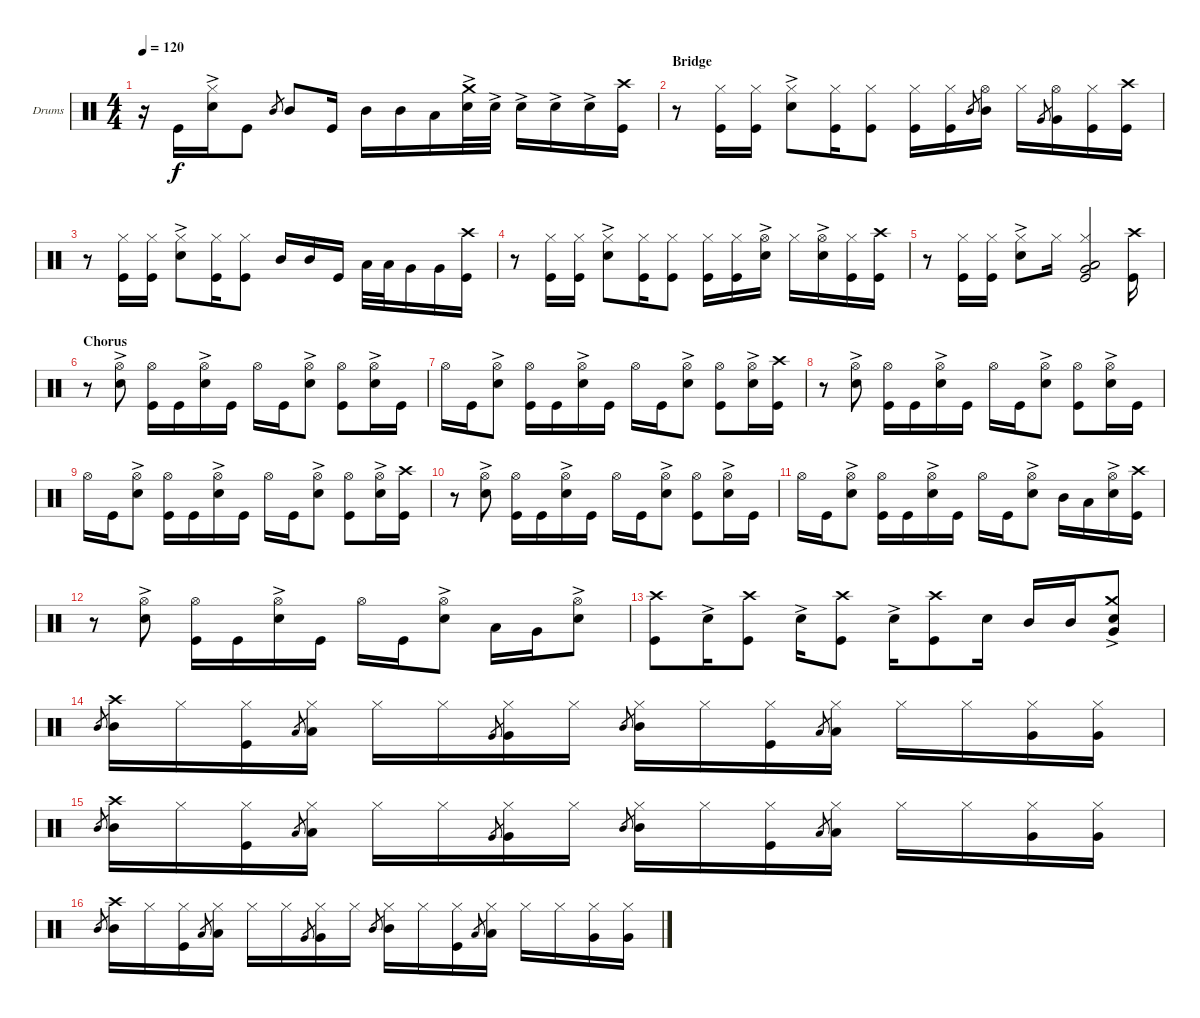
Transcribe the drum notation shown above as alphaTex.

\defaultSystemsLayout 4
\bracketExtendMode groupsimilarinstruments
\firstSystemTrackNameOrientation horizontal
\otherSystemsTrackNameOrientation horizontal
\track ("Drumkit" "Drums") {instrument percussion}
\staff {score}
\articulation defaults
\ts (4 4)
\tempo 120
\clef neutral
\ks c
r.16{dy f} "Kick (hit)".16 ("Snare (hit) 2"{ac} "Hi-Hat (closed)").16 "Kick (hit)".8 "Mid Tom (hit)".8{gr} "Mid Tom (hit)".8 "Kick (hit)".16 "Mid Tom (hit)".16 "Mid Tom (hit)".16 "Low Tom (hit)".16 ("Snare (hit) 2"{ac} "Crash medium (hit)"{ac}).32 "Snare (hit) 2"{ac}.32 "Snare (hit) 2"{ac}.16 "Snare (hit) 2"{ac}.16 "Snare (hit) 2"{ac}.16 ("Kick (hit)" "Crash high (hit)").16 |
\section ("" "Bridge")
r.8 ("Kick (hit)" "Hi-Hat (closed)").16 ("Kick (hit)" "Hi-Hat (closed)").16 ("Snare (hit) 2"{ac} "Hi-Hat (closed)").8 ("Kick (hit)" "Hi-Hat (closed)").16 ("Kick (hit)" "Hi-Hat (closed)").8 ("Kick (hit)" "Hi-Hat (closed)").16 ("Kick (hit)" "Hi-Hat (closed)").16 "Mid Tom (hit)".8{gr} ("Mid Tom (hit)" "Hi-Hat (open)").16 "Hi-Hat (closed)".16 "Very Low Tom (hit)".8{gr} ("Very Low Tom (hit)" "Hi-Hat (open)").16 ("Kick (hit)" "Hi-Hat (closed)").16 ("Kick (hit)" "Crash high (hit)").16 |
r.8 ("Kick (hit)" "Hi-Hat (closed)").16 ("Kick (hit)" "Hi-Hat (closed)").16 ("Snare (hit) 2"{ac} "Hi-Hat (closed)").8 ("Kick (hit)" "Hi-Hat (closed)").16 ("Kick (hit)" "Hi-Hat (closed)").8 "Mid Tom (hit)".16 "Mid Tom (hit)".16 "Kick (hit)".16 "Low Tom (hit)".32 "Low Tom (hit)".32 "Very Low Tom (hit)".16 "Very Low Tom (hit)".16 ("Kick (hit)" "Crash high (hit)").16 |
r.8 ("Kick (hit)" "Hi-Hat (closed)").16 ("Kick (hit)" "Hi-Hat (closed)").16 ("Snare (hit) 2"{ac} "Hi-Hat (closed)").8 ("Kick (hit)" "Hi-Hat (closed)").16 ("Kick (hit)" "Hi-Hat (closed)").8 ("Kick (hit)" "Hi-Hat (closed)").16 ("Kick (hit)" "Hi-Hat (closed)").16 ("Snare (hit) 2"{ac} "Hi-Hat (open)").16 "Hi-Hat (closed)".16 ("Snare (hit) 2"{ac} "Hi-Hat (open)").16 ("Kick (hit)" "Hi-Hat (closed)").16 ("Kick (hit)" "Crash high (hit)").16 |
r.8 ("Kick (hit)" "Hi-Hat (closed)").16 ("Kick (hit)" "Hi-Hat (closed)").16 ("Snare (hit) 2"{ac} "Hi-Hat (closed)").8 "Hi-Hat (closed)".16 ("Very Low Tom (hit)" "Low Tom (hit)" "Kick (hit)" "Hi-Hat (closed)").2 ("Kick (hit)" "Crash high (hit)").16 |
\section ("" "Chorus")
r.8 ("Snare (hit) 2"{ac} "Hi-Hat (open)").8 ("Kick (hit)" "Hi-Hat (open)").16 "Kick (hit)".16 ("Snare (hit) 2"{ac} "Hi-Hat (open)").16 "Kick (hit)".16 "Hi-Hat (open)".16 "Kick (hit)".16 ("Snare (hit) 2"{ac} "Hi-Hat (open)").8 ("Kick (hit)" "Hi-Hat (open)").8 ("Snare (hit) 2"{ac} "Hi-Hat (open)").16 "Kick (hit)".16 |
"Hi-Hat (open)".16 "Kick (hit)".16 ("Snare (hit) 2"{ac} "Hi-Hat (open)").8 ("Kick (hit)" "Hi-Hat (open)").16 "Kick (hit)".16 ("Snare (hit) 2"{ac} "Hi-Hat (open)").16 "Kick (hit)".16 "Hi-Hat (open)".16 "Kick (hit)".16 ("Snare (hit) 2"{ac} "Hi-Hat (open)").8 ("Kick (hit)" "Hi-Hat (open)").8 ("Snare (hit) 2"{ac} "Hi-Hat (open)").16 ("Kick (hit)" "Crash high (hit)").16 |
r.8 ("Snare (hit) 2"{ac} "Hi-Hat (open)").8 ("Kick (hit)" "Hi-Hat (open)").16 "Kick (hit)".16 ("Snare (hit) 2"{ac} "Hi-Hat (open)").16 "Kick (hit)".16 "Hi-Hat (open)".16 "Kick (hit)".16 ("Snare (hit) 2"{ac} "Hi-Hat (open)").8 ("Kick (hit)" "Hi-Hat (open)").8 ("Snare (hit) 2"{ac} "Hi-Hat (open)").16 "Kick (hit)".16 |
"Hi-Hat (open)".16 "Kick (hit)".16 ("Snare (hit) 2"{ac} "Hi-Hat (open)").8 ("Kick (hit)" "Hi-Hat (open)").16 "Kick (hit)".16 ("Snare (hit) 2"{ac} "Hi-Hat (open)").16 "Kick (hit)".16 "Hi-Hat (open)".16 "Kick (hit)".16 ("Snare (hit) 2"{ac} "Hi-Hat (open)").8 ("Kick (hit)" "Hi-Hat (open)").8 ("Snare (hit) 2"{ac} "Hi-Hat (open)").16 ("Kick (hit)" "Crash high (hit)").16 |
r.8 ("Snare (hit) 2"{ac} "Hi-Hat (open)").8 ("Kick (hit)" "Hi-Hat (open)").16 "Kick (hit)".16 ("Snare (hit) 2"{ac} "Hi-Hat (open)").16 "Kick (hit)".16 "Hi-Hat (open)".16 "Kick (hit)".16 ("Snare (hit) 2"{ac} "Hi-Hat (open)").8 ("Kick (hit)" "Hi-Hat (open)").8 ("Snare (hit) 2"{ac} "Hi-Hat (open)").16 "Kick (hit)".16 |
"Hi-Hat (open)".16 "Kick (hit)".16 ("Snare (hit) 2"{ac} "Hi-Hat (open)").8 ("Kick (hit)" "Hi-Hat (open)").16 "Kick (hit)".16 ("Snare (hit) 2"{ac} "Hi-Hat (open)").16 "Kick (hit)".16 "Hi-Hat (open)".16 "Kick (hit)".16 ("Snare (hit) 2"{ac} "Hi-Hat (open)").8 "Mid Tom (hit)".16 "Low Tom (hit)".16 ("Snare (hit) 2"{ac} "Hi-Hat (open)").16 ("Kick (hit)" "Crash high (hit)").16 |
r.8 ("Snare (hit) 2"{ac} "Hi-Hat (open)").8 ("Kick (hit)" "Hi-Hat (open)").16 "Kick (hit)".16 ("Snare (hit) 2"{ac} "Hi-Hat (open)").16 "Kick (hit)".16 "Hi-Hat (open)".16 "Kick (hit)".16 ("Snare (hit) 2"{ac} "Hi-Hat (open)").8 "Low Tom (hit)".16 "Very Low Tom (hit)".16 ("Snare (hit) 2"{ac} "Hi-Hat (open)").8 |
("Kick (hit)" "Crash high (hit)").8 "Snare (hit) 2"{ac}.16 ("Kick (hit)" "Crash high (hit)").8 "Snare (hit) 2"{ac}.16 ("Kick (hit)" "Crash high (hit)").8 "Snare (hit) 2"{ac}.16 ("Kick (hit)" "Crash high (hit)").8 "Snare (hit) 2".16 "Mid Tom (hit)".16 "Mid Tom (hit)".16 ("Snare (hit) 2"{ac} "Very Low Tom (hit)" "Crash medium (hit)"{ac}).8 |
"Mid Tom (hit)".8{gr} ("Mid Tom (hit)" "Crash high (hit)").16 "Hi-Hat (closed)".16 ("Hi-Hat (closed)" "Kick (hit)").16 "Low Tom (hit)".8{gr} ("Hi-Hat (closed)" "Low Tom (hit)").16 "Hi-Hat (closed)".16 "Hi-Hat (closed)".16 "Very Low Tom (hit)".8{gr} ("Hi-Hat (closed)" "Very Low Tom (hit)").16 "Hi-Hat (closed)".16 "Mid Tom (hit)".8{gr} ("Hi-Hat (closed)" "Mid Tom (hit)").16 "Hi-Hat (closed)".16 ("Hi-Hat (closed)" "Kick (hit)").16 "Low Tom (hit)".8{gr} ("Hi-Hat (closed)" "Low Tom (hit)").16 "Hi-Hat (closed)".16 "Hi-Hat (closed)".16 ("Hi-Hat (closed)" "Very Low Tom (hit)").16 ("Hi-Hat (closed)" "Very Low Tom (hit)").16 |
"Mid Tom (hit)".8{gr} ("Mid Tom (hit)" "Crash high (hit)").16 "Hi-Hat (closed)".16 ("Hi-Hat (closed)" "Kick (hit)").16 "Low Tom (hit)".8{gr} ("Hi-Hat (closed)" "Low Tom (hit)").16 "Hi-Hat (closed)".16 "Hi-Hat (closed)".16 "Very Low Tom (hit)".8{gr} ("Hi-Hat (closed)" "Very Low Tom (hit)").16 "Hi-Hat (closed)".16 "Mid Tom (hit)".8{gr} ("Hi-Hat (closed)" "Mid Tom (hit)").16 "Hi-Hat (closed)".16 ("Hi-Hat (closed)" "Kick (hit)").16 "Low Tom (hit)".8{gr} ("Hi-Hat (closed)" "Low Tom (hit)").16 "Hi-Hat (closed)".16 "Hi-Hat (closed)".16 ("Hi-Hat (closed)" "Very Low Tom (hit)").16 ("Hi-Hat (closed)" "Very Low Tom (hit)").16 |
"Mid Tom (hit)".8{gr} ("Mid Tom (hit)" "Crash high (hit)").16 "Hi-Hat (closed)".16 ("Hi-Hat (closed)" "Kick (hit)").16 "Low Tom (hit)".8{gr} ("Hi-Hat (closed)" "Low Tom (hit)").16 "Hi-Hat (closed)".16 "Hi-Hat (closed)".16 "Very Low Tom (hit)".8{gr} ("Hi-Hat (closed)" "Very Low Tom (hit)").16 "Hi-Hat (closed)".16 "Mid Tom (hit)".8{gr} ("Hi-Hat (closed)" "Mid Tom (hit)").16 "Hi-Hat (closed)".16 ("Hi-Hat (closed)" "Kick (hit)").16 "Low Tom (hit)".8{gr} ("Hi-Hat (closed)" "Low Tom (hit)").16 "Hi-Hat (closed)".16 "Hi-Hat (closed)".16 ("Hi-Hat (closed)" "Very Low Tom (hit)").16 ("Hi-Hat (closed)" "Very Low Tom (hit)").16
